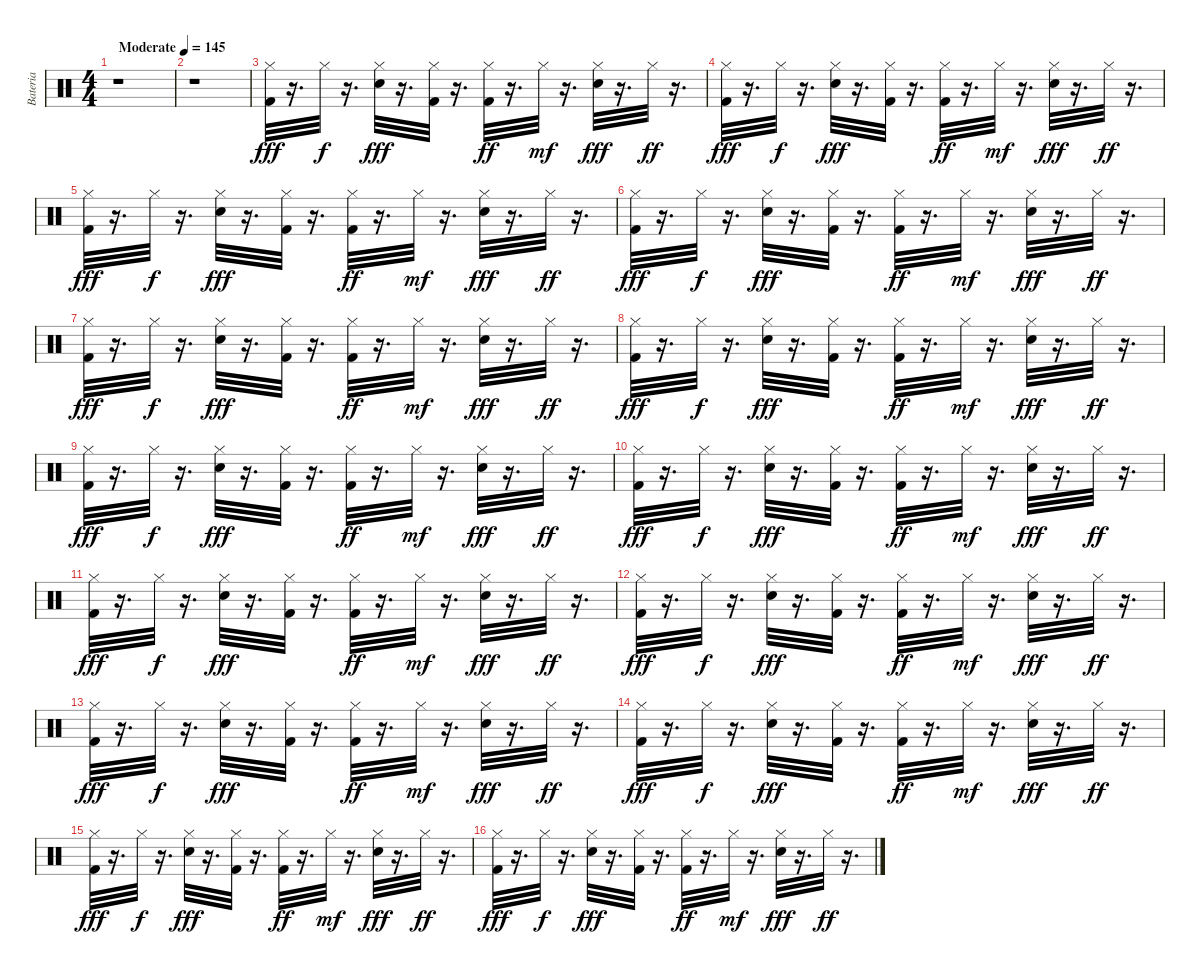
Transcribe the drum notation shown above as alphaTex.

\track ("Bateria" "Bateria") {instrument percussion}
\staff {score}
\articulation defaults
\ts (4 4)
\tempo (145 "Moderate")
\clef neutral
\ks c
r.1{dy fff} |
r.1 |
("Kick (hit) 2" "Hi-Hat (closed)").32 r.16{d} "Hi-Hat (closed)".32{dy f} r.16{d} ("Electric Snare (hit)" "Hi-Hat (closed)").32{dy fff} r.16{d} ("Kick (hit) 2" "Hi-Hat (closed)").32 r.16{d} ("Kick (hit) 2" "Hi-Hat (closed)").32{dy ff} r.16{d} "Hi-Hat (closed)".32{dy mf} r.16{d} ("Electric Snare (hit)" "Hi-Hat (closed)").32{dy fff} r.16{d} "Hi-Hat (closed)".32{dy ff} r.16{d} |
("Kick (hit) 2" "Hi-Hat (closed)").32{dy fff} r.16{d} "Hi-Hat (closed)".32{dy f} r.16{d} ("Electric Snare (hit)" "Hi-Hat (closed)").32{dy fff} r.16{d} ("Kick (hit) 2" "Hi-Hat (closed)").32 r.16{d} ("Kick (hit) 2" "Hi-Hat (closed)").32{dy ff} r.16{d} "Hi-Hat (closed)".32{dy mf} r.16{d} ("Electric Snare (hit)" "Hi-Hat (closed)").32{dy fff} r.16{d} "Hi-Hat (closed)".32{dy ff} r.16{d} |
("Kick (hit) 2" "Hi-Hat (closed)").32{dy fff} r.16{d} "Hi-Hat (closed)".32{dy f} r.16{d} ("Electric Snare (hit)" "Hi-Hat (closed)").32{dy fff} r.16{d} ("Kick (hit) 2" "Hi-Hat (closed)").32 r.16{d} ("Kick (hit) 2" "Hi-Hat (closed)").32{dy ff} r.16{d} "Hi-Hat (closed)".32{dy mf} r.16{d} ("Electric Snare (hit)" "Hi-Hat (closed)").32{dy fff} r.16{d} "Hi-Hat (closed)".32{dy ff} r.16{d} |
("Kick (hit) 2" "Hi-Hat (closed)").32{dy fff} r.16{d} "Hi-Hat (closed)".32{dy f} r.16{d} ("Electric Snare (hit)" "Hi-Hat (closed)").32{dy fff} r.16{d} ("Kick (hit) 2" "Hi-Hat (closed)").32 r.16{d} ("Kick (hit) 2" "Hi-Hat (closed)").32{dy ff} r.16{d} "Hi-Hat (closed)".32{dy mf} r.16{d} ("Electric Snare (hit)" "Hi-Hat (closed)").32{dy fff} r.16{d} "Hi-Hat (closed)".32{dy ff} r.16{d} |
("Kick (hit) 2" "Hi-Hat (closed)").32{dy fff} r.16{d} "Hi-Hat (closed)".32{dy f} r.16{d} ("Electric Snare (hit)" "Hi-Hat (closed)").32{dy fff} r.16{d} ("Kick (hit) 2" "Hi-Hat (closed)").32 r.16{d} ("Kick (hit) 2" "Hi-Hat (closed)").32{dy ff} r.16{d} "Hi-Hat (closed)".32{dy mf} r.16{d} ("Electric Snare (hit)" "Hi-Hat (closed)").32{dy fff} r.16{d} "Hi-Hat (closed)".32{dy ff} r.16{d} |
("Kick (hit) 2" "Hi-Hat (closed)").32{dy fff} r.16{d} "Hi-Hat (closed)".32{dy f} r.16{d} ("Electric Snare (hit)" "Hi-Hat (closed)").32{dy fff} r.16{d} ("Kick (hit) 2" "Hi-Hat (closed)").32 r.16{d} ("Kick (hit) 2" "Hi-Hat (closed)").32{dy ff} r.16{d} "Hi-Hat (closed)".32{dy mf} r.16{d} ("Electric Snare (hit)" "Hi-Hat (closed)").32{dy fff} r.16{d} "Hi-Hat (closed)".32{dy ff} r.16{d} |
("Kick (hit) 2" "Hi-Hat (closed)").32{dy fff} r.16{d} "Hi-Hat (closed)".32{dy f} r.16{d} ("Electric Snare (hit)" "Hi-Hat (closed)").32{dy fff} r.16{d} ("Kick (hit) 2" "Hi-Hat (closed)").32 r.16{d} ("Kick (hit) 2" "Hi-Hat (closed)").32{dy ff} r.16{d} "Hi-Hat (closed)".32{dy mf} r.16{d} ("Electric Snare (hit)" "Hi-Hat (closed)").32{dy fff} r.16{d} "Hi-Hat (closed)".32{dy ff} r.16{d} |
("Kick (hit) 2" "Hi-Hat (closed)").32{dy fff} r.16{d} "Hi-Hat (closed)".32{dy f} r.16{d} ("Electric Snare (hit)" "Hi-Hat (closed)").32{dy fff} r.16{d} ("Kick (hit) 2" "Hi-Hat (closed)").32 r.16{d} ("Kick (hit) 2" "Hi-Hat (closed)").32{dy ff} r.16{d} "Hi-Hat (closed)".32{dy mf} r.16{d} ("Electric Snare (hit)" "Hi-Hat (closed)").32{dy fff} r.16{d} "Hi-Hat (closed)".32{dy ff} r.16{d} |
("Kick (hit) 2" "Hi-Hat (closed)").32{dy fff} r.16{d} "Hi-Hat (closed)".32{dy f} r.16{d} ("Electric Snare (hit)" "Hi-Hat (closed)").32{dy fff} r.16{d} ("Kick (hit) 2" "Hi-Hat (closed)").32 r.16{d} ("Kick (hit) 2" "Hi-Hat (closed)").32{dy ff} r.16{d} "Hi-Hat (closed)".32{dy mf} r.16{d} ("Electric Snare (hit)" "Hi-Hat (closed)").32{dy fff} r.16{d} "Hi-Hat (closed)".32{dy ff} r.16{d} |
("Kick (hit) 2" "Hi-Hat (closed)").32{dy fff} r.16{d} "Hi-Hat (closed)".32{dy f} r.16{d} ("Electric Snare (hit)" "Hi-Hat (closed)").32{dy fff} r.16{d} ("Kick (hit) 2" "Hi-Hat (closed)").32 r.16{d} ("Kick (hit) 2" "Hi-Hat (closed)").32{dy ff} r.16{d} "Hi-Hat (closed)".32{dy mf} r.16{d} ("Electric Snare (hit)" "Hi-Hat (closed)").32{dy fff} r.16{d} "Hi-Hat (closed)".32{dy ff} r.16{d} |
("Kick (hit) 2" "Hi-Hat (closed)").32{dy fff} r.16{d} "Hi-Hat (closed)".32{dy f} r.16{d} ("Electric Snare (hit)" "Hi-Hat (closed)").32{dy fff} r.16{d} ("Kick (hit) 2" "Hi-Hat (closed)").32 r.16{d} ("Kick (hit) 2" "Hi-Hat (closed)").32{dy ff} r.16{d} "Hi-Hat (closed)".32{dy mf} r.16{d} ("Electric Snare (hit)" "Hi-Hat (closed)").32{dy fff} r.16{d} "Hi-Hat (closed)".32{dy ff} r.16{d} |
("Kick (hit) 2" "Hi-Hat (closed)").32{dy fff} r.16{d} "Hi-Hat (closed)".32{dy f} r.16{d} ("Electric Snare (hit)" "Hi-Hat (closed)").32{dy fff} r.16{d} ("Kick (hit) 2" "Hi-Hat (closed)").32 r.16{d} ("Kick (hit) 2" "Hi-Hat (closed)").32{dy ff} r.16{d} "Hi-Hat (closed)".32{dy mf} r.16{d} ("Electric Snare (hit)" "Hi-Hat (closed)").32{dy fff} r.16{d} "Hi-Hat (closed)".32{dy ff} r.16{d} |
("Kick (hit) 2" "Hi-Hat (closed)").32{dy fff} r.16{d} "Hi-Hat (closed)".32{dy f} r.16{d} ("Electric Snare (hit)" "Hi-Hat (closed)").32{dy fff} r.16{d} ("Kick (hit) 2" "Hi-Hat (closed)").32 r.16{d} ("Kick (hit) 2" "Hi-Hat (closed)").32{dy ff} r.16{d} "Hi-Hat (closed)".32{dy mf} r.16{d} ("Electric Snare (hit)" "Hi-Hat (closed)").32{dy fff} r.16{d} "Hi-Hat (closed)".32{dy ff} r.16{d} |
("Kick (hit) 2" "Hi-Hat (closed)").32{dy fff} r.16{d} "Hi-Hat (closed)".32{dy f} r.16{d} ("Electric Snare (hit)" "Hi-Hat (closed)").32{dy fff} r.16{d} ("Kick (hit) 2" "Hi-Hat (closed)").32 r.16{d} ("Kick (hit) 2" "Hi-Hat (closed)").32{dy ff} r.16{d} "Hi-Hat (closed)".32{dy mf} r.16{d} ("Electric Snare (hit)" "Hi-Hat (closed)").32{dy fff} r.16{d} "Hi-Hat (closed)".32{dy ff} r.16{d}
